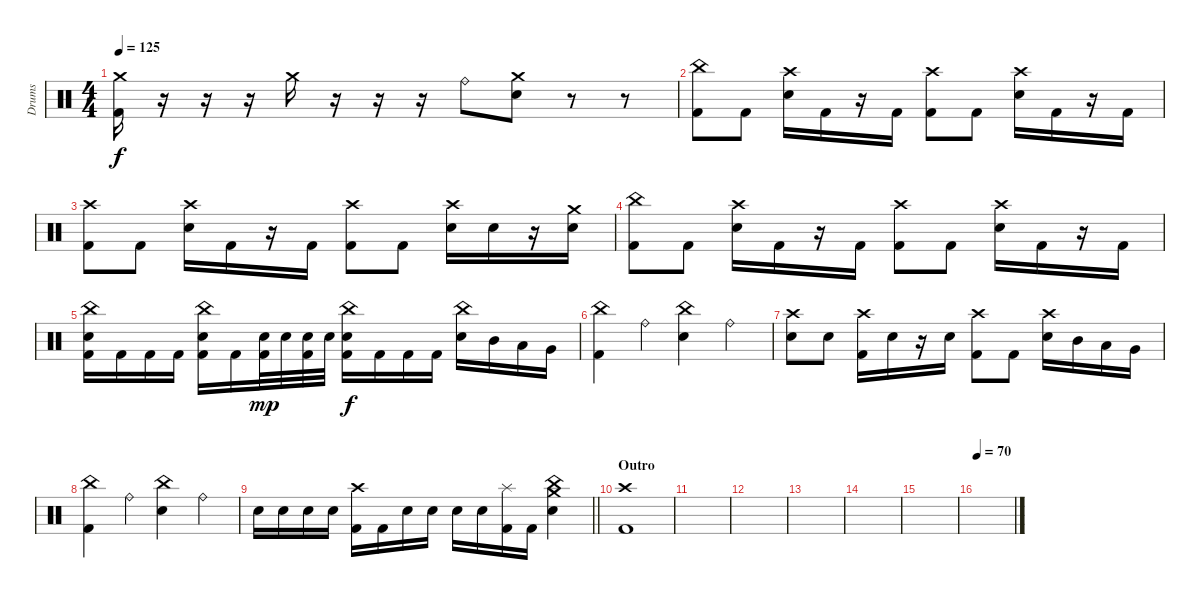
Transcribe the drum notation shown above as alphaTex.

\track ("Drums" "Drums") {instrument percussion}
\staff {score}
\articulation defaults
\ts (4 4)
\tempo 125
\clef neutral
\ks c
("Crash medium (hit)" "Kick (hit) 2").16{dy f} r.16 r.16 r.16 "Crash medium (hit)".16 r.16 r.16 r.16 "Ride (bell)".8 ("Crash medium (hit)" "Electric Snare (hit)").8 r.8 r.8 |
("China (hit)" "Kick (hit) 2").8 "Kick (hit) 2".8 ("Crash high (hit)" "Electric Snare (hit)").16 "Kick (hit) 2".16 r.16 "Kick (hit) 2".16 ("Crash high (hit)" "Kick (hit) 2").8 "Kick (hit) 2".8 ("Crash high (hit)" "Electric Snare (hit)").16 "Kick (hit) 2".16 r.16 "Kick (hit) 2".16 |
("Crash high (hit)" "Kick (hit) 2").8 "Kick (hit) 2".8 ("Crash high (hit)" "Electric Snare (hit)").16 "Kick (hit) 2".16 r.16 "Kick (hit) 2".16 ("Crash high (hit)" "Kick (hit) 2").8 "Kick (hit) 2".8 ("Crash high (hit)" "Electric Snare (hit)").16 "Electric Snare (hit)".16 r.16 ("Crash medium (hit)" "Electric Snare (hit)").16 |
("China (hit)" "Kick (hit) 2").8 "Kick (hit) 2".8 ("Crash high (hit)" "Electric Snare (hit)").16 "Kick (hit) 2".16 r.16 "Kick (hit) 2".16 ("Crash high (hit)" "Kick (hit) 2").8 "Kick (hit) 2".8 ("Crash high (hit)" "Electric Snare (hit)").16 "Kick (hit) 2".16 r.16 "Kick (hit) 2".16 |
("China (hit)" "Electric Snare (hit)" "Kick (hit) 2").16 "Kick (hit) 2".16 "Kick (hit) 2".16 "Kick (hit) 2".16 ("China (hit)" "Electric Snare (hit)" "Kick (hit) 2").16 "Kick (hit) 2".16 ("Electric Snare (hit)" "Kick (hit) 2").32{dy mp} "Electric Snare (hit)".32 ("Electric Snare (hit)" "Kick (hit) 2").32 "Electric Snare (hit)".32 ("China (hit)" "Electric Snare (hit)" "Kick (hit) 2").16{dy f} "Kick (hit) 2".16 "Kick (hit) 2".16 "Kick (hit) 2".16 ("China (hit)" "Electric Snare (hit)").16 "Mid Tom (hit)".16 "Low Tom (hit)".16 "Very Low Tom (hit)".16 |
("China (hit)" "Kick (hit) 2").4 "Ride (bell)".4 ("China (hit)" "Electric Snare (hit)").4 "Ride (bell)".4 |
("Crash high (hit)" "Electric Snare (hit)").8 "Electric Snare (hit)".8 ("Crash high (hit)" "Kick (hit) 2").16 "Electric Snare (hit)".16 r.16 "Electric Snare (hit)".16 ("Crash high (hit)" "Kick (hit) 2").8 "Kick (hit) 2".8 ("Crash high (hit)" "Electric Snare (hit)").16 "Mid Tom (hit)".16 "Low Tom (hit)".16 "Very Low Tom (hit)".16 |
("China (hit)" "Kick (hit) 2").4 "Ride (bell)".4 ("China (hit)" "Electric Snare (hit)").4 "Ride (bell)".4 |
\barLineRight lightlight "Electric Snare (hit)".16 "Electric Snare (hit)".16 "Electric Snare (hit)".16 "Electric Snare (hit)".16
("Crash high (hit)" "Kick (hit) 2").16 "Kick (hit) 2".16 "Electric Snare (hit)".16 "Electric Snare (hit)".16 "Electric Snare (hit)".16 "Electric Snare (hit)".16 ("Splash (hit)" "Kick (hit) 2").16 "Kick (hit) 2".16 ("China (hit)" "Crash medium (hit)" "Electric Snare (hit)").4 |
\section ("" "Outro")
("Crash high (hit)" "Kick (hit) 2").1 |
|
|
|
|
|
\tempo 70
